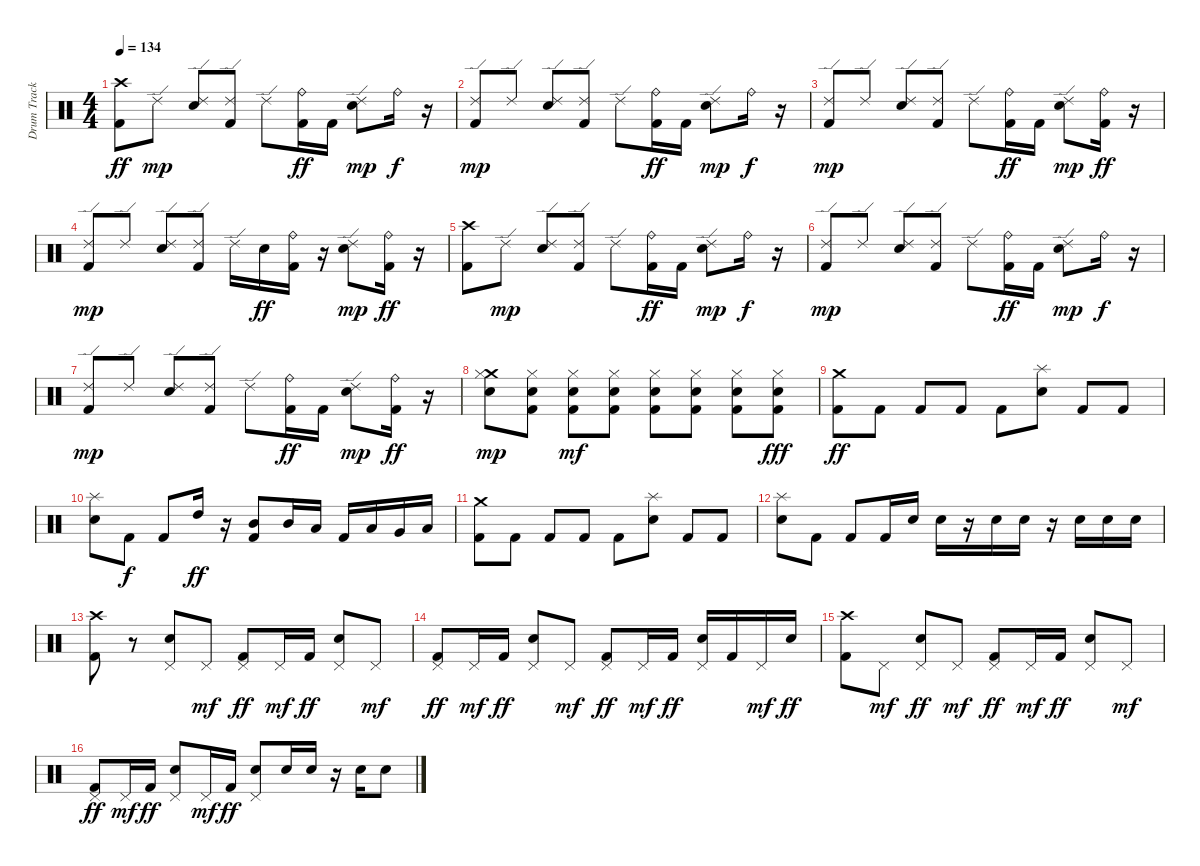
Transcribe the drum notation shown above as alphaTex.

\track ("Drum Track" "Drum Track") {instrument percussion}
\staff {score}
\articulation defaults
\ts (4 4)
\tempo 134
\clef neutral
\ks c
("Kick (hit) 2" "Crash high (hit)").8{dy ff} "Ride (edge) 2".8{dy mp} ("Electric Snare (hit)" "Ride (edge) 2").8 ("Kick (hit) 2" "Ride (edge) 2").8 "Ride (edge) 2".8 ("Kick (hit) 2" "Ride (bell)").16{dy ff} "Kick (hit) 2".16 ("Electric Snare (hit)" "Ride (edge) 2").8{dy mp} "Ride (bell)".16{dy f} r.16 |
("Kick (hit) 2" "Ride (edge) 2").8{dy mp} "Ride (edge) 2".8 ("Electric Snare (hit)" "Ride (edge) 2").8 ("Kick (hit) 2" "Ride (edge) 2").8 "Ride (edge) 2".8 ("Kick (hit) 2" "Ride (bell)").16{dy ff} "Kick (hit) 2".16 ("Electric Snare (hit)" "Ride (edge) 2").8{dy mp} "Ride (bell)".16{dy f} r.16 |
("Kick (hit) 2" "Ride (edge) 2").8{dy mp} "Ride (edge) 2".8 ("Electric Snare (hit)" "Ride (edge) 2").8 ("Kick (hit) 2" "Ride (edge) 2").8 "Ride (edge) 2".8 ("Kick (hit) 2" "Ride (bell)").16{dy ff} "Kick (hit) 2".16 ("Electric Snare (hit)" "Ride (edge) 2").8{dy mp} ("Kick (hit) 2" "Ride (bell)").16{dy ff} r.16 |
("Kick (hit) 2" "Ride (edge) 2").8{dy mp} "Ride (edge) 2".8 ("Electric Snare (hit)" "Ride (edge) 2").8 ("Kick (hit) 2" "Ride (edge) 2").8 "Ride (edge) 2".16 "Electric Snare (hit)".16{dy ff} ("Kick (hit) 2" "Ride (bell)").16 r.16 ("Electric Snare (hit)" "Ride (edge) 2").8{dy mp} ("Kick (hit) 2" "Ride (bell)").16{dy ff} r.16 |
("Kick (hit) 2" "Crash high (hit)").8 "Ride (edge) 2".8{dy mp} ("Electric Snare (hit)" "Ride (edge) 2").8 ("Kick (hit) 2" "Ride (edge) 2").8 "Ride (edge) 2".8 ("Kick (hit) 2" "Ride (bell)").16{dy ff} "Kick (hit) 2".16 ("Electric Snare (hit)" "Ride (edge) 2").8{dy mp} "Ride (bell)".16{dy f} r.16 |
("Kick (hit) 2" "Ride (edge) 2").8{dy mp} "Ride (edge) 2".8 ("Electric Snare (hit)" "Ride (edge) 2").8 ("Kick (hit) 2" "Ride (edge) 2").8 "Ride (edge) 2".8 ("Kick (hit) 2" "Ride (bell)").16{dy ff} "Kick (hit) 2".16 ("Electric Snare (hit)" "Ride (edge) 2").8{dy mp} "Ride (bell)".16{dy f} r.16 |
("Kick (hit) 2" "Ride (edge) 2").8{dy mp} "Ride (edge) 2".8 ("Electric Snare (hit)" "Ride (edge) 2").8 ("Kick (hit) 2" "Ride (edge) 2").8 "Ride (edge) 2".8 ("Kick (hit) 2" "Ride (bell)").16{dy ff} "Kick (hit) 2".16 ("Electric Snare (hit)" "Ride (edge) 2").8{dy mp} ("Kick (hit) 2" "Ride (bell)").16{dy ff} r.16 |
("Electric Snare (hit)" "Crash medium (hit)" "Hi-Hat (closed)").8{dy mp} ("Kick (hit) 2" "Electric Snare (hit)" "Hi-Hat (closed)").8 ("Kick (hit) 2" "Electric Snare (hit)" "Hi-Hat (closed)").8{dy mf} ("Kick (hit) 2" "Electric Snare (hit)" "Hi-Hat (closed)").8 ("Kick (hit) 2" "Electric Snare (hit)" "Hi-Hat (closed)").8 ("Kick (hit) 2" "Electric Snare (hit)" "Hi-Hat (closed)").8 ("Kick (hit) 2" "Electric Snare (hit)" "Hi-Hat (closed)").8 ("Kick (hit) 2" "Electric Snare (hit)" "Hi-Hat (closed)").8{dy fff} |
("Kick (hit) 2" "Crash medium (hit)").8{dy ff} "Kick (hit) 2".8 "Kick (hit) 2".8 "Kick (hit) 2".8 "Kick (hit) 2".8 ("Electric Snare (hit)" "Splash (hit)").8 "Kick (hit) 2".8 "Kick (hit) 2".8 |
("Electric Snare (hit)" "Splash (hit)").8 "Kick (hit) 2".8{dy f} "Kick (hit) 2".8 "High Tom (hit)".16{dy ff} r.16 ("Kick (hit) 2" "Mid Tom (hit)").8 "Mid Tom (hit)".16 "Low Tom (hit)".16 "Kick (hit) 2".16 "Low Tom (hit)".16 "Very Low Tom (hit)".16 "Low Floor Tom (hit)".16 |
("Kick (hit) 2" "Crash medium (hit)").8 "Kick (hit) 2".8 "Kick (hit) 2".8 "Kick (hit) 2".8 "Kick (hit) 2".8 ("Electric Snare (hit)" "Splash (hit)").8 "Kick (hit) 2".8 "Kick (hit) 2".8 |
("Electric Snare (hit)" "Splash (hit)").8 "Kick (hit) 2".8 "Kick (hit) 2".8 "Kick (hit) 2".16 "Electric Snare (hit)".16 "Electric Snare (hit)".16 r.16 "Electric Snare (hit)".16 "Electric Snare (hit)".16 r.16 "Electric Snare (hit)".16 "Electric Snare (hit)".16 "Electric Snare (hit)".16 |
("Kick (hit) 2" "Crash high (hit)").8 r.8 ("Electric Snare (hit)" "Pedal Hi-Hat (hit)").8 "Pedal Hi-Hat (hit)".8{dy mf} ("Kick (hit) 2" "Pedal Hi-Hat (hit)").8{dy ff} "Pedal Hi-Hat (hit)".16{dy mf} "Kick (hit) 2".16{dy ff} ("Electric Snare (hit)" "Pedal Hi-Hat (hit)").8 "Pedal Hi-Hat (hit)".8{dy mf} |
("Kick (hit) 2" "Pedal Hi-Hat (hit)").8{dy ff} "Pedal Hi-Hat (hit)".16{dy mf} "Kick (hit) 2".16{dy ff} ("Electric Snare (hit)" "Pedal Hi-Hat (hit)").8 "Pedal Hi-Hat (hit)".8{dy mf} ("Kick (hit) 2" "Pedal Hi-Hat (hit)").8{dy ff} "Pedal Hi-Hat (hit)".16{dy mf} "Kick (hit) 2".16{dy ff} ("Electric Snare (hit)" "Pedal Hi-Hat (hit)").16 "Kick (hit) 2".16 "Pedal Hi-Hat (hit)".16{dy mf} "Electric Snare (hit)".16{dy ff} |
("Kick (hit) 2" "Crash high (hit)").8 "Pedal Hi-Hat (hit)".8{dy mf} ("Electric Snare (hit)" "Pedal Hi-Hat (hit)").8{dy ff} "Pedal Hi-Hat (hit)".8{dy mf} ("Kick (hit) 2" "Pedal Hi-Hat (hit)").8{dy ff} "Pedal Hi-Hat (hit)".16{dy mf} "Kick (hit) 2".16{dy ff} ("Electric Snare (hit)" "Pedal Hi-Hat (hit)").8 "Pedal Hi-Hat (hit)".8{dy mf} |
("Kick (hit) 2" "Pedal Hi-Hat (hit)").8{dy ff} "Pedal Hi-Hat (hit)".16{dy mf} "Kick (hit) 2".16{dy ff} ("Electric Snare (hit)" "Pedal Hi-Hat (hit)").8 "Pedal Hi-Hat (hit)".16{dy mf} "Kick (hit) 2".16{dy ff} ("Electric Snare (hit)" "Pedal Hi-Hat (hit)").8 "Electric Snare (hit)".16 "Electric Snare (hit)".16 r.16 "Electric Snare (hit)".16 "Electric Snare (hit)".8
